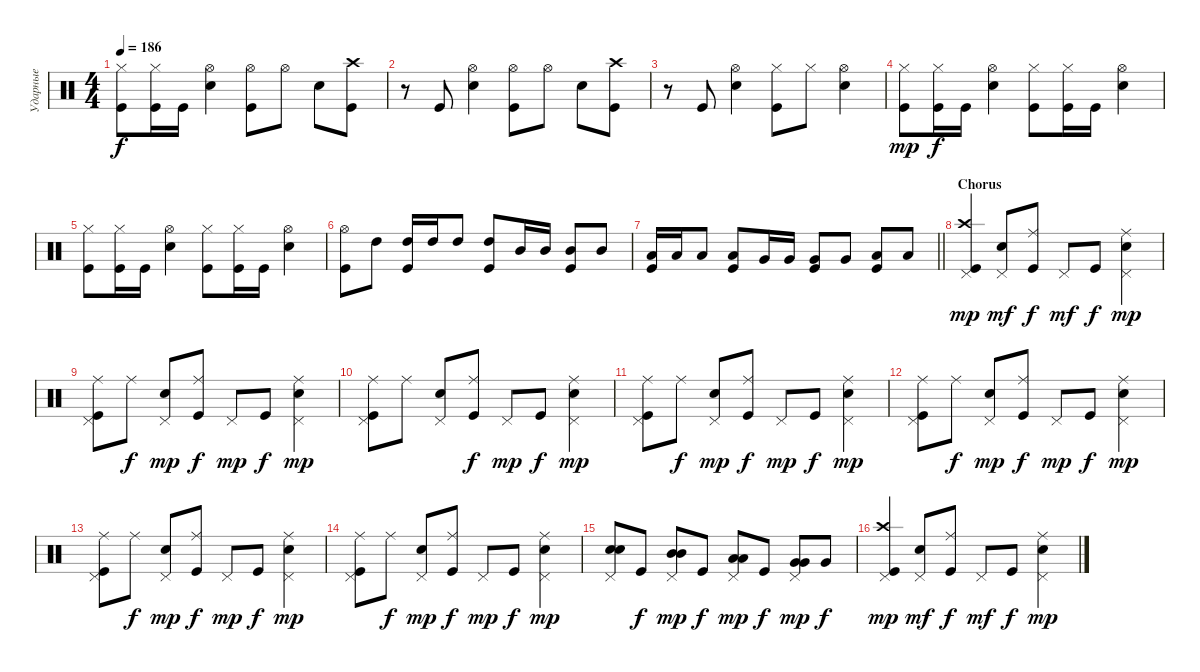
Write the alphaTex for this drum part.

\track ("Ударные" "Ударные") {instrument percussion}
\staff {score}
\articulation defaults
\ts (4 4)
\tempo 186
\clef neutral
\ks aminor
("Kick (hit)" "Hi-Hat (closed)").8{dy f} ("Kick (hit)" "Hi-Hat (closed)").16 "Kick (hit)".16 ("Snare (hit) 2" "Hi-Hat (open)").4 ("Kick (hit)" "Hi-Hat (open)").8 "Hi-Hat (open)".8 "Snare (hit) 2".8 ("Kick (hit)" "Crash high (hit)").8 |
r.8 "Kick (hit)".8 ("Snare (hit) 2" "Hi-Hat (open)").4 ("Kick (hit)" "Hi-Hat (open)").8 "Hi-Hat (open)".8 "Snare (hit) 2".8 ("Kick (hit)" "Crash high (hit)").8 |
r.8 "Kick (hit)".8 ("Snare (hit) 2" "Hi-Hat (open)").4 ("Kick (hit)" "Hi-Hat (closed)").8 "Hi-Hat (closed)".8 ("Snare (hit) 2" "Hi-Hat (open)").4 |
("Kick (hit)" "Hi-Hat (closed)").8{dy mp} ("Kick (hit)" "Hi-Hat (closed)").16{dy f} "Kick (hit)".16 ("Snare (hit) 2" "Hi-Hat (open)").4 ("Kick (hit)" "Hi-Hat (closed)").8 ("Kick (hit)" "Hi-Hat (closed)").16 "Kick (hit)".16 ("Snare (hit) 2" "Hi-Hat (open)").4 |
("Kick (hit)" "Hi-Hat (closed)").8 ("Kick (hit)" "Hi-Hat (closed)").16 "Kick (hit)".16 ("Snare (hit) 2" "Hi-Hat (open)").4 ("Kick (hit)" "Hi-Hat (closed)").8 ("Kick (hit)" "Hi-Hat (closed)").16 "Kick (hit)".16 ("Snare (hit) 2" "Hi-Hat (open)").4 |
("Kick (hit)" "Hi-Hat (open)").8 "High Tom (hit)".8 ("High Tom (hit)" "Kick (hit)").16 "High Tom (hit)".16 "High Tom (hit)".8 ("High Tom (hit)" "Kick (hit)").8 "Mid Tom (hit)".16 "Mid Tom (hit)".16 ("Mid Tom (hit)" "Kick (hit)").8 "Mid Tom (hit)".8 |
\barLineRight lightlight
("Low Tom (hit)" "Kick (hit)").16 "Low Tom (hit)".16 "Low Tom (hit)".8 ("Low Tom (hit)" "Kick (hit)").8 "Very Low Tom (hit)".16 "Very Low Tom (hit)".16 ("Very Low Tom (hit)" "Kick (hit)").8 "Very Low Tom (hit)".8 ("Low Floor Tom (hit)" "Kick (hit)").8 "Low Floor Tom (hit)".8 |
\section ("" "Chorus")
("Kick (hit)" "Crash high (hit)" "Pedal Hi-Hat (hit)").4{dy mp} ("Snare (hit) 2" "Pedal Hi-Hat (hit)").8{dy mf} ("Kick (hit)" "Ride (middle)").8{dy f} "Pedal Hi-Hat (hit)".8{dy mf} "Kick (hit)".8{dy f} ("Snare (hit) 2" "Ride (middle)" "Pedal Hi-Hat (hit)").4{dy mp} |
("Pedal Hi-Hat (hit)" "Ride (middle)" "Kick (hit)").8 "Ride (middle)".8{dy f} ("Snare (hit) 2" "Pedal Hi-Hat (hit)").8{dy mp} ("Kick (hit)" "Ride (middle)").8{dy f} "Pedal Hi-Hat (hit)".8{dy mp} "Kick (hit)".8{dy f} ("Snare (hit) 2" "Ride (middle)" "Pedal Hi-Hat (hit)").4{dy mp} |
("Pedal Hi-Hat (hit)" "Ride (middle)" "Kick (hit)").8 "Ride (middle)".8 ("Snare (hit) 2" "Pedal Hi-Hat (hit)").8 ("Kick (hit)" "Ride (middle)").8{dy f} "Pedal Hi-Hat (hit)".8{dy mp} "Kick (hit)".8{dy f} ("Snare (hit) 2" "Ride (middle)" "Pedal Hi-Hat (hit)").4{dy mp} |
("Pedal Hi-Hat (hit)" "Ride (middle)" "Kick (hit)").8 "Ride (middle)".8{dy f} ("Snare (hit) 2" "Pedal Hi-Hat (hit)").8{dy mp} ("Kick (hit)" "Ride (middle)").8{dy f} "Pedal Hi-Hat (hit)".8{dy mp} "Kick (hit)".8{dy f} ("Snare (hit) 2" "Ride (middle)" "Pedal Hi-Hat (hit)").4{dy mp} |
("Pedal Hi-Hat (hit)" "Ride (middle)" "Kick (hit)").8 "Ride (middle)".8{dy f} ("Snare (hit) 2" "Pedal Hi-Hat (hit)").8{dy mp} ("Kick (hit)" "Ride (middle)").8{dy f} "Pedal Hi-Hat (hit)".8{dy mp} "Kick (hit)".8{dy f} ("Snare (hit) 2" "Ride (middle)" "Pedal Hi-Hat (hit)").4{dy mp} |
("Pedal Hi-Hat (hit)" "Ride (middle)" "Kick (hit)").8 "Ride (middle)".8{dy f} ("Snare (hit) 2" "Pedal Hi-Hat (hit)").8{dy mp} ("Kick (hit)" "Ride (middle)").8{dy f} "Pedal Hi-Hat (hit)".8{dy mp} "Kick (hit)".8{dy f} ("Snare (hit) 2" "Ride (middle)" "Pedal Hi-Hat (hit)").4{dy mp} |
("Pedal Hi-Hat (hit)" "Ride (middle)" "Kick (hit)").8 "Ride (middle)".8{dy f} ("Snare (hit) 2" "Pedal Hi-Hat (hit)").8{dy mp} ("Kick (hit)" "Ride (middle)").8{dy f} "Pedal Hi-Hat (hit)".8{dy mp} "Kick (hit)".8{dy f} ("Snare (hit) 2" "Ride (middle)" "Pedal Hi-Hat (hit)").4{dy mp} |
("Snare (hit) 2" "Snare (hit) 2" "Pedal Hi-Hat (hit)").8{bd 240} "Kick (hit)".8{dy f} ("Pedal Hi-Hat (hit)" "Mid Tom (hit)" "Mid Tom (hit)").8{bd 480 dy mp} "Kick (hit)".8{dy f} ("Low Tom (hit)" "Low Tom (hit)" "Pedal Hi-Hat (hit)").8{bd 480 dy mp} "Kick (hit)".8{dy f} ("Very Low Tom (hit)" "Pedal Hi-Hat (hit)" "Very Low Tom (hit)").8{dy mp} "Very Low Tom (hit)".8{dy f} |
("Kick (hit)" "Crash high (hit)" "Pedal Hi-Hat (hit)").4{dy mp} ("Snare (hit) 2" "Pedal Hi-Hat (hit)").8{dy mf} ("Kick (hit)" "Ride (middle)").8{dy f} "Pedal Hi-Hat (hit)".8{dy mf} "Kick (hit)".8{dy f} ("Snare (hit) 2" "Ride (middle)" "Pedal Hi-Hat (hit)").4{dy mp}
